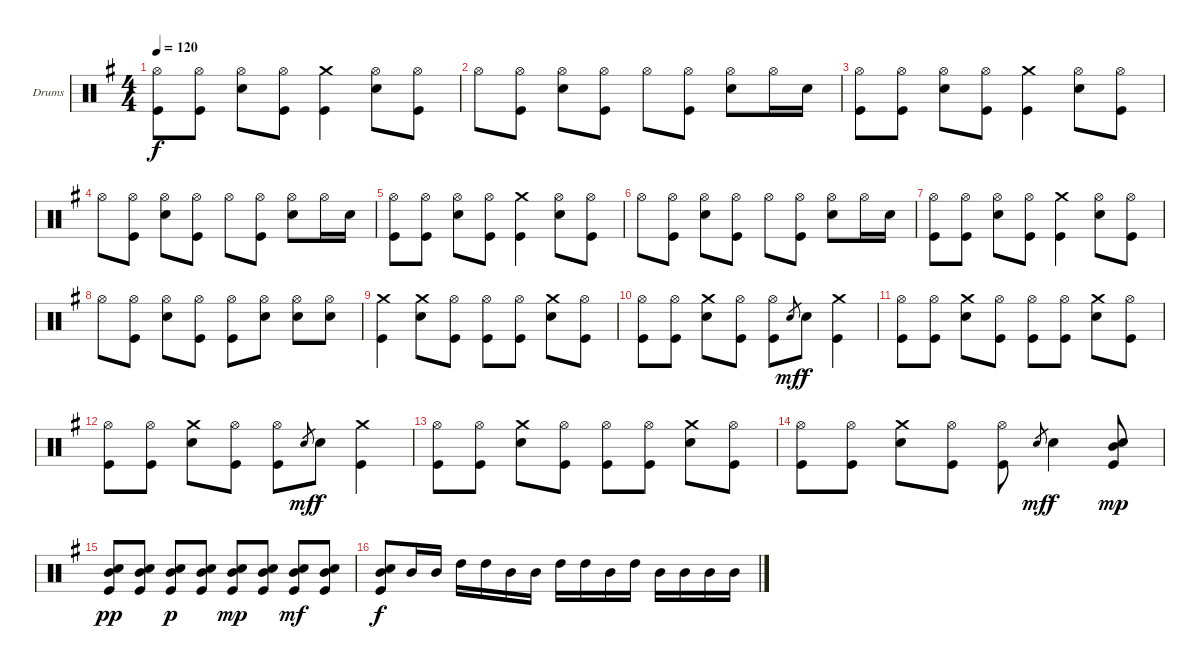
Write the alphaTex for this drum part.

\defaultSystemsLayout 4
\bracketExtendMode groupsimilarinstruments
\firstSystemTrackNameOrientation horizontal
\otherSystemsTrackNameOrientation horizontal
\track ("Drumkit" "Drums") {instrument percussion}
\staff {score}
\articulation defaults
\ts (4 4)
\tempo 120
\clef neutral
\scale
1.04288
\ks g
("Hi-Hat (open)" "Kick (hit)").8{dy f} ("Hi-Hat (open)" "Kick (hit)").8 ("Hi-Hat (open)" "Snare (hit) 2").8 ("Hi-Hat (open)" "Kick (hit)").8 ("Crash medium (hit)" "Kick (hit)").4 ("Hi-Hat (open)" "Snare (hit) 2").8 ("Hi-Hat (open)" "Kick (hit)").8 |
\scale
0.957125 "Hi-Hat (open)".8 ("Hi-Hat (open)" "Kick (hit)").8 ("Hi-Hat (open)" "Snare (hit) 2").8 ("Hi-Hat (open)" "Kick (hit)").8 "Hi-Hat (open)".8 ("Hi-Hat (open)" "Kick (hit)").8 ("Hi-Hat (open)" "Snare (hit) 2").8 "Hi-Hat (open)".16 "Snare (hit) 2".16 |
\scale
1.04288 ("Hi-Hat (open)" "Kick (hit)").8 ("Hi-Hat (open)" "Kick (hit)").8 ("Hi-Hat (open)" "Snare (hit) 2").8 ("Hi-Hat (open)" "Kick (hit)").8 ("Crash medium (hit)" "Kick (hit)").4 ("Hi-Hat (open)" "Snare (hit) 2").8 ("Hi-Hat (open)" "Kick (hit)").8 |
\scale
0.957125 "Hi-Hat (open)".8 ("Hi-Hat (open)" "Kick (hit)").8 ("Hi-Hat (open)" "Snare (hit) 2").8 ("Hi-Hat (open)" "Kick (hit)").8 "Hi-Hat (open)".8 ("Hi-Hat (open)" "Kick (hit)").8 ("Hi-Hat (open)" "Snare (hit) 2").8 "Hi-Hat (open)".16 "Snare (hit) 2".16 |
\scale
1.04288 ("Hi-Hat (open)" "Kick (hit)").8 ("Hi-Hat (open)" "Kick (hit)").8 ("Hi-Hat (open)" "Snare (hit) 2").8 ("Hi-Hat (open)" "Kick (hit)").8 ("Crash medium (hit)" "Kick (hit)").4 ("Hi-Hat (open)" "Snare (hit) 2").8 ("Hi-Hat (open)" "Kick (hit)").8 |
\scale
0.957125 "Hi-Hat (open)".8 ("Hi-Hat (open)" "Kick (hit)").8 ("Hi-Hat (open)" "Snare (hit) 2").8 ("Hi-Hat (open)" "Kick (hit)").8 "Hi-Hat (open)".8 ("Hi-Hat (open)" "Kick (hit)").8 ("Hi-Hat (open)" "Snare (hit) 2").8 "Hi-Hat (open)".16 "Snare (hit) 2".16 |
\scale
1.04288 ("Hi-Hat (open)" "Kick (hit)").8 ("Hi-Hat (open)" "Kick (hit)").8 ("Hi-Hat (open)" "Snare (hit) 2").8 ("Hi-Hat (open)" "Kick (hit)").8 ("Crash medium (hit)" "Kick (hit)").4 ("Hi-Hat (open)" "Snare (hit) 2").8 ("Hi-Hat (open)" "Kick (hit)").8 |
\scale
0.957125 "Hi-Hat (open)".8 ("Hi-Hat (open)" "Kick (hit)").8 ("Hi-Hat (open)" "Snare (hit) 2").8 ("Hi-Hat (open)" "Kick (hit)").8 ("Hi-Hat (open)" "Kick (hit)").8 ("Hi-Hat (open)" "Snare (hit) 2").8 ("Hi-Hat (open)" "Snare (hit) 2").8 ("Hi-Hat (open)" "Snare (hit) 2").8 |
\scale
1.04288 ("Crash medium (hit)" "Kick (hit)").4 ("Crash medium (hit)" "Snare (hit) 2").8 ("Hi-Hat (open)" "Kick (hit)").8 ("Hi-Hat (open)" "Kick (hit)").8 ("Hi-Hat (open)" "Kick (hit)").8 ("Crash medium (hit)" "Snare (hit) 2").8 ("Hi-Hat (open)" "Kick (hit)").8 |
\scale
0.957125 ("Hi-Hat (open)" "Kick (hit)").8 ("Hi-Hat (open)" "Kick (hit)").8 ("Crash medium (hit)" "Snare (hit) 2").8 ("Hi-Hat (open)" "Kick (hit)").8 ("Hi-Hat (open)" "Kick (hit)").8 "Snare (hit) 2".8{gr dy mf} "Snare (hit) 2".8{dy f} ("Crash medium (hit)" "Kick (hit)").4 |
\scale
1.04288 ("Hi-Hat (open)" "Kick (hit)").8 ("Hi-Hat (open)" "Kick (hit)").8 ("Crash medium (hit)" "Snare (hit) 2").8 ("Hi-Hat (open)" "Kick (hit)").8 ("Hi-Hat (open)" "Kick (hit)").8 ("Hi-Hat (open)" "Kick (hit)").8 ("Crash medium (hit)" "Snare (hit) 2").8 ("Hi-Hat (open)" "Kick (hit)").8 |
\scale
0.957125 ("Hi-Hat (open)" "Kick (hit)").8 ("Hi-Hat (open)" "Kick (hit)").8 ("Crash medium (hit)" "Snare (hit) 2").8 ("Hi-Hat (open)" "Kick (hit)").8 ("Hi-Hat (open)" "Kick (hit)").8 "Snare (hit) 2".8{gr dy mf} "Snare (hit) 2".8{dy f} ("Crash medium (hit)" "Kick (hit)").4 |
\scale
1.04288 ("Hi-Hat (open)" "Kick (hit)").8 ("Hi-Hat (open)" "Kick (hit)").8 ("Crash medium (hit)" "Snare (hit) 2").8 ("Hi-Hat (open)" "Kick (hit)").8 ("Hi-Hat (open)" "Kick (hit)").8 ("Hi-Hat (open)" "Kick (hit)").8 ("Crash medium (hit)" "Snare (hit) 2").8 ("Hi-Hat (open)" "Kick (hit)").8 |
\scale
0.957125 ("Hi-Hat (open)" "Kick (hit)").8 ("Hi-Hat (open)" "Kick (hit)").8 ("Crash medium (hit)" "Snare (hit) 2").8 ("Hi-Hat (open)" "Kick (hit)").8 ("Hi-Hat (open)" "Kick (hit)").8 "Snare (hit) 2".8{gr dy mf} "Snare (hit) 2".4{dy f} ("Mid Tom (hit)" "Snare (hit) 2" "Kick (hit)").8{dy mp} |
\scale
1.04288 ("Mid Tom (hit)" "Snare (hit) 2" "Kick (hit)").8{dy pp} ("Mid Tom (hit)" "Snare (hit) 2" "Kick (hit)").8 ("Mid Tom (hit)" "Snare (hit) 2" "Kick (hit)").8{dy p} ("Mid Tom (hit)" "Snare (hit) 2" "Kick (hit)").8 ("Mid Tom (hit)" "Snare (hit) 2" "Kick (hit)").8{dy mp} ("Mid Tom (hit)" "Snare (hit) 2" "Kick (hit)").8 ("Mid Tom (hit)" "Snare (hit) 2" "Kick (hit)").8{dy mf} ("Mid Tom (hit)" "Snare (hit) 2" "Kick (hit)").8 |
\scale
0.957125 ("Mid Tom (hit)" "Snare (hit) 2" "Kick (hit)").8{dy f} "Mid Tom (hit)".16 "Mid Tom (hit)".16 "High Tom (hit)".16 "High Tom (hit)".16 "Mid Tom (hit)".16 "Mid Tom (hit)".16 "High Tom (hit)".16 "High Tom (hit)".16 "Mid Tom (hit)".16 "High Tom (hit)".16 "Mid Tom (hit)".16 "Mid Tom (hit)".16 "Mid Tom (hit)".16 "Mid Tom (hit)".16
